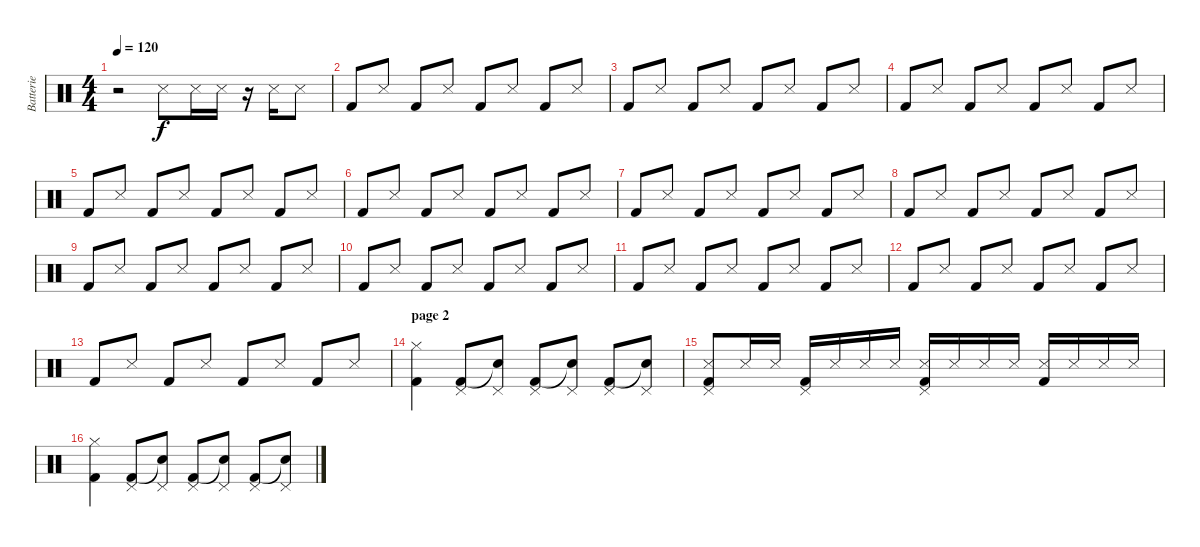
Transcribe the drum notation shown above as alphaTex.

\track ("Batterie" "Batterie") {instrument percussion}
\staff {score}
\articulation defaults
\ts (4 4)
\tempo 120
\clef neutral
\ks c
r.2{dy f} "Snare (side stick) 3".8 "Snare (side stick) 3".16 "Snare (side stick) 3".16 r.16 "Snare (side stick) 3".16 "Snare (side stick) 3".8 |
"Kick (hit) 2".8 "Snare (side stick) 3".8 "Kick (hit) 2".8 "Snare (side stick) 3".8 "Kick (hit) 2".8 "Snare (side stick) 3".8 "Kick (hit) 2".8 "Snare (side stick) 3".8 |
"Kick (hit) 2".8 "Snare (side stick) 3".8 "Kick (hit) 2".8 "Snare (side stick) 3".8 "Kick (hit) 2".8 "Snare (side stick) 3".8 "Kick (hit) 2".8 "Snare (side stick) 3".8 |
"Kick (hit) 2".8 "Snare (side stick) 3".8 "Kick (hit) 2".8 "Snare (side stick) 3".8 "Kick (hit) 2".8 "Snare (side stick) 3".8 "Kick (hit) 2".8 "Snare (side stick) 3".8 |
"Kick (hit) 2".8 "Snare (side stick) 3".8 "Kick (hit) 2".8 "Snare (side stick) 3".8 "Kick (hit) 2".8 "Snare (side stick) 3".8 "Kick (hit) 2".8 "Snare (side stick) 3".8 |
"Kick (hit) 2".8 "Snare (side stick) 3".8 "Kick (hit) 2".8 "Snare (side stick) 3".8 "Kick (hit) 2".8 "Snare (side stick) 3".8 "Kick (hit) 2".8 "Snare (side stick) 3".8 |
"Kick (hit) 2".8 "Snare (side stick) 3".8 "Kick (hit) 2".8 "Snare (side stick) 3".8 "Kick (hit) 2".8 "Snare (side stick) 3".8 "Kick (hit) 2".8 "Snare (side stick) 3".8 |
"Kick (hit) 2".8 "Snare (side stick) 3".8 "Kick (hit) 2".8 "Snare (side stick) 3".8 "Kick (hit) 2".8 "Snare (side stick) 3".8 "Kick (hit) 2".8 "Snare (side stick) 3".8 |
"Kick (hit) 2".8 "Snare (side stick) 3".8 "Kick (hit) 2".8 "Snare (side stick) 3".8 "Kick (hit) 2".8 "Snare (side stick) 3".8 "Kick (hit) 2".8 "Snare (side stick) 3".8 |
"Kick (hit) 2".8 "Snare (side stick) 3".8 "Kick (hit) 2".8 "Snare (side stick) 3".8 "Kick (hit) 2".8 "Snare (side stick) 3".8 "Kick (hit) 2".8 "Snare (side stick) 3".8 |
"Kick (hit) 2".8 "Snare (side stick) 3".8 "Kick (hit) 2".8 "Snare (side stick) 3".8 "Kick (hit) 2".8 "Snare (side stick) 3".8 "Kick (hit) 2".8 "Snare (side stick) 3".8 |
"Kick (hit) 2".8 "Snare (side stick) 3".8 "Kick (hit) 2".8 "Snare (side stick) 3".8 "Kick (hit) 2".8 "Snare (side stick) 3".8 "Kick (hit) 2".8 "Snare (side stick) 3".8 |
"Kick (hit) 2".8 "Snare (side stick) 3".8 "Kick (hit) 2".8 "Snare (side stick) 3".8 "Kick (hit) 2".8 "Snare (side stick) 3".8 "Kick (hit) 2".8 "Snare (side stick) 3".8 |
\section ("" "page 2")
("Hi-Hat (closed)" "Kick (hit) 2").4 ("Pedal Hi-Hat (hit)" "Kick (hit) 2").8 ("Pedal Hi-Hat (hit)" "Snare (hit)"{t}).8 ("Pedal Hi-Hat (hit)" "Kick (hit) 2").8 ("Pedal Hi-Hat (hit)" "Snare (hit)"{t}).8 ("Pedal Hi-Hat (hit)" "Kick (hit) 2").8 ("Pedal Hi-Hat (hit)" "Snare (hit)"{t}).8 |
("Pedal Hi-Hat (hit)" "Snare (side stick) 3" "Kick (hit) 2").8 "Snare (side stick) 3".16 "Snare (side stick) 3".16 ("Pedal Hi-Hat (hit)" "Kick (hit) 2").16 "Snare (side stick) 3".16 "Snare (side stick) 3".16 "Snare (side stick) 3".16 ("Pedal Hi-Hat (hit)" "Snare (side stick) 3" "Kick (hit) 2").16 "Snare (side stick) 3".16 "Snare (side stick) 3".16 "Snare (side stick) 3".16 ("Snare (side stick) 3" "Kick (hit) 2").16 "Snare (side stick) 3".16 "Snare (side stick) 3".16 "Snare (side stick) 3".16 |
("Hi-Hat (closed)" "Kick (hit) 2").4 ("Pedal Hi-Hat (hit)" "Kick (hit) 2").8 ("Pedal Hi-Hat (hit)" "Snare (hit)"{t}).8 ("Pedal Hi-Hat (hit)" "Kick (hit) 2").8 ("Pedal Hi-Hat (hit)" "Snare (hit)"{t}).8 ("Pedal Hi-Hat (hit)" "Kick (hit) 2").8 ("Pedal Hi-Hat (hit)" "Snare (hit)"{t}).8
